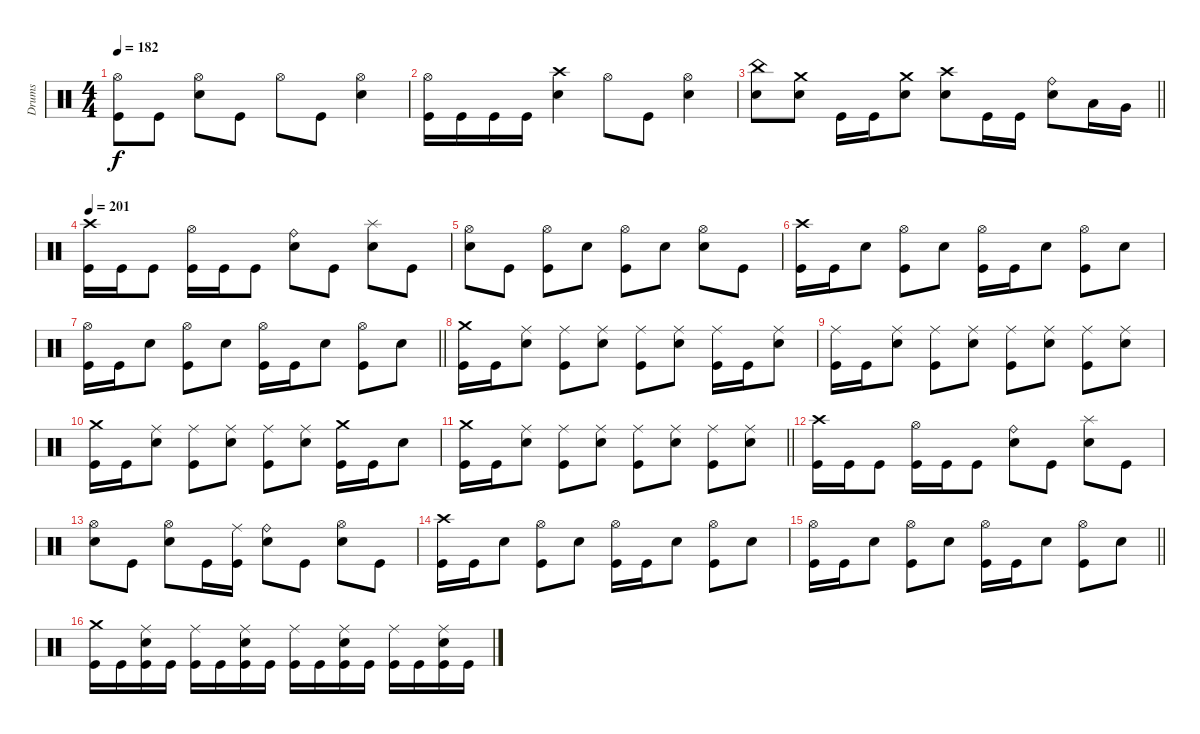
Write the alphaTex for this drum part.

\track ("Drums" "Drums") {instrument percussion}
\staff
\articulation defaults
\ts (4 4)
\tempo 182
\clef neutral
\ks c
("Hi-Hat (open)" "Kick (hit)").8{dy f} "Kick (hit)".8 ("Hi-Hat (open)" "Electric Snare (hit)").8 "Kick (hit)".8 "Hi-Hat (open)".8 "Kick (hit)".8 ("Hi-Hat (open)" "Electric Snare (hit)").4 |
("Hi-Hat (open)" "Kick (hit)").16 "Kick (hit)".16 "Kick (hit)".16 "Kick (hit)".16 ("Crash high (hit)" "Electric Snare (hit)").4 "Hi-Hat (open)".8 "Kick (hit)".8 ("Hi-Hat (open)" "Electric Snare (hit)").4 |
\barLineRight lightlight
("China (hit)" "Electric Snare (hit)").8 ("Crash medium (hit)" "Electric Snare (hit)").8 "Kick (hit)".16 "Kick (hit)".16 ("Crash medium (hit)" "Electric Snare (hit)").8 ("Crash high (hit)" "Electric Snare (hit)").8 "Kick (hit)".16 "Kick (hit)".16 ("Ride (bell)" "Electric Snare (hit)").8 "Low Tom (hit)".16 "Very Low Tom (hit)".16 |
\section ("" "")
\tempo 201
("Crash high (hit)" "Kick (hit)").16 "Kick (hit)".16 "Kick (hit)".8 ("Hi-Hat (open)" "Kick (hit)").16 "Kick (hit)".16 "Kick (hit)".8 ("Ride (bell)" "Electric Snare (hit)").8 "Kick (hit)".8 ("Splash (hit)" "Electric Snare (hit)").8 "Kick (hit)".8 |
("Hi-Hat (open)" "Electric Snare (hit)").8 "Kick (hit)".8 ("Hi-Hat (open)" "Kick (hit)").8 "Electric Snare (hit)".8 ("Hi-Hat (open)" "Kick (hit)").8 "Electric Snare (hit)".8 ("Hi-Hat (open)" "Electric Snare (hit)").8 "Kick (hit)".8 |
("Crash high (hit)" "Kick (hit)").16 "Kick (hit)".16 "Electric Snare (hit)".8 ("Hi-Hat (open)" "Kick (hit)").8 "Electric Snare (hit)".8 ("Hi-Hat (open)" "Kick (hit)").16 "Kick (hit)".16 "Electric Snare (hit)".8 ("Hi-Hat (open)" "Kick (hit)").8 "Electric Snare (hit)".8 |
\barLineRight lightlight
("Hi-Hat (open)" "Kick (hit)").16 "Kick (hit)".16 "Electric Snare (hit)".8 ("Hi-Hat (open)" "Kick (hit)").8 "Electric Snare (hit)".8 ("Hi-Hat (open)" "Kick (hit)").16 "Kick (hit)".16 "Electric Snare (hit)".8 ("Hi-Hat (open)" "Kick (hit)").8 "Electric Snare (hit)".8 |
("Crash medium (hit)" "Kick (hit)").16 "Kick (hit)".16 ("Ride (middle)" "Electric Snare (hit)").8 ("Ride (middle)" "Kick (hit)").8 ("Ride (middle)" "Electric Snare (hit)").8 ("Ride (middle)" "Kick (hit)").8 ("Ride (middle)" "Electric Snare (hit)").8 ("Ride (middle)" "Kick (hit)").16 "Kick (hit)".16 ("Ride (middle)" "Electric Snare (hit)").8 |
("Ride (middle)" "Kick (hit)").16 "Kick (hit)".16 ("Ride (middle)" "Electric Snare (hit)").8 ("Ride (middle)" "Kick (hit)").8 ("Ride (middle)" "Electric Snare (hit)").8 ("Ride (middle)" "Kick (hit)").8 ("Ride (middle)" "Electric Snare (hit)").8 ("Ride (middle)" "Kick (hit)").8 ("Ride (middle)" "Electric Snare (hit)").8 |
("Crash medium (hit)" "Kick (hit)").16 "Kick (hit)".16 ("Ride (middle)" "Electric Snare (hit)").8 ("Ride (middle)" "Kick (hit)").8 ("Ride (middle)" "Electric Snare (hit)").8 ("Ride (middle)" "Kick (hit)").8 ("Ride (middle)" "Electric Snare (hit)").8 ("Crash medium (hit)" "Kick (hit)").16 "Kick (hit)".16 "Electric Snare (hit)".8 |
\barLineRight lightlight
("Crash medium (hit)" "Kick (hit)").16 "Kick (hit)".16 ("Ride (middle)" "Electric Snare (hit)").8 ("Ride (middle)" "Kick (hit)").8 ("Ride (middle)" "Electric Snare (hit)").8 ("Ride (middle)" "Kick (hit)").8 ("Ride (middle)" "Electric Snare (hit)").8 ("Ride (middle)" "Kick (hit)").8 ("Ride (middle)" "Electric Snare (hit)").8 |
("Crash high (hit)" "Kick (hit)").16 "Kick (hit)".16 "Kick (hit)".8 ("Hi-Hat (open)" "Kick (hit)").16 "Kick (hit)".16 "Kick (hit)".8 ("Ride (bell)" "Electric Snare (hit)").8 "Kick (hit)".8 ("Splash (hit)" "Electric Snare (hit)").8 "Kick (hit)".8 |
("Hi-Hat (open)" "Electric Snare (hit)").8 "Kick (hit)".8 ("Hi-Hat (open)" "Electric Snare (hit)").8 "Kick (hit)".16 ("Ride (middle)" "Kick (hit)").16 ("Ride (bell)" "Electric Snare (hit)").8 "Kick (hit)".8 ("Hi-Hat (open)" "Electric Snare (hit)").8 "Kick (hit)".8 |
("Crash high (hit)" "Kick (hit)").16 "Kick (hit)".16 "Electric Snare (hit)".8 ("Hi-Hat (open)" "Kick (hit)").8 "Electric Snare (hit)".8 ("Hi-Hat (open)" "Kick (hit)").16 "Kick (hit)".16 "Electric Snare (hit)".8 ("Hi-Hat (open)" "Kick (hit)").8 "Electric Snare (hit)".8 |
\barLineRight lightlight
("Hi-Hat (open)" "Kick (hit)").16 "Kick (hit)".16 "Electric Snare (hit)".8 ("Hi-Hat (open)" "Kick (hit)").8 "Electric Snare (hit)".8 ("Hi-Hat (open)" "Kick (hit)").16 "Kick (hit)".16 "Electric Snare (hit)".8 ("Hi-Hat (open)" "Kick (hit)").8 "Electric Snare (hit)".8 |
("Crash medium (hit)" "Kick (hit)").16 "Kick (hit)".16 ("Ride (middle)" "Electric Snare (hit)" "Kick (hit)").16 "Kick (hit)".16 ("Ride (middle)" "Kick (hit)").16 "Kick (hit)".16 ("Ride (middle)" "Electric Snare (hit)" "Kick (hit)").16 "Kick (hit)".16 ("Ride (middle)" "Kick (hit)").16 "Kick (hit)".16 ("Ride (middle)" "Electric Snare (hit)" "Kick (hit)").16 "Kick (hit)".16 ("Ride (middle)" "Kick (hit)").16 "Kick (hit)".16 ("Ride (middle)" "Electric Snare (hit)" "Kick (hit)").16 "Kick (hit)".16
